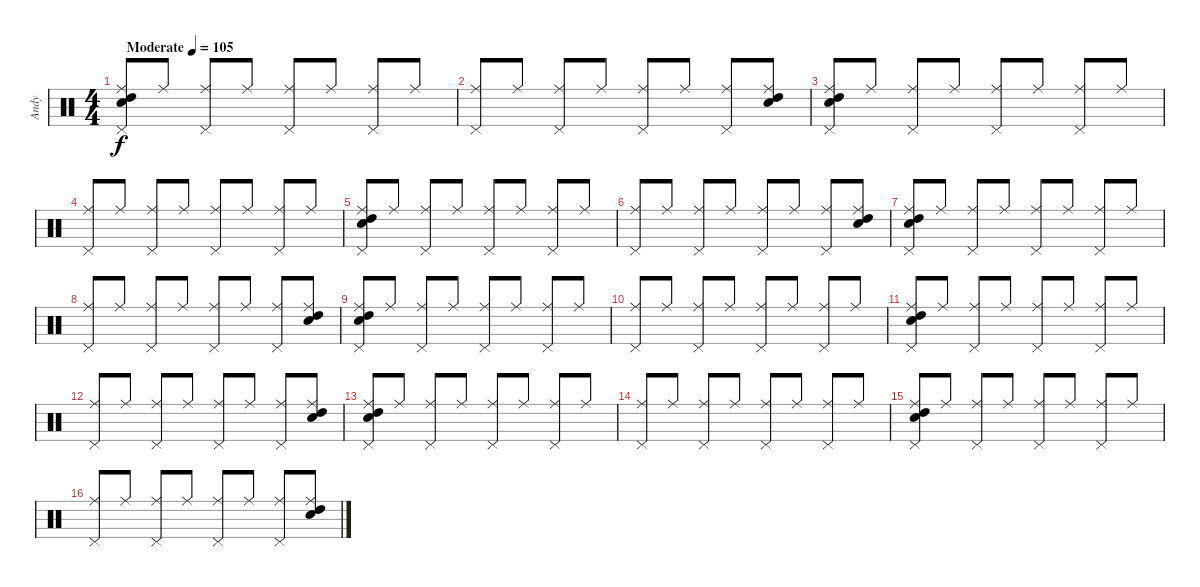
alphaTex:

\track ("Andy" "Andy") {instrument percussion}
\staff {score}
\articulation defaults
\ts (4 4)
\tempo (105 "Moderate")
\clef neutral
\ks c
("Snare (hit) 2" "High Tom (hit)" "Ride (middle)" "Pedal Hi-Hat (hit)").8{dy f} "Ride (middle)".8 ("Ride (middle)" "Pedal Hi-Hat (hit)").8 "Ride (middle)".8 ("Ride (middle)" "Pedal Hi-Hat (hit)").8 "Ride (middle)".8 ("Ride (middle)" "Pedal Hi-Hat (hit)").8 "Ride (middle)".8 |
("Ride (middle)" "Pedal Hi-Hat (hit)").8 "Ride (middle)".8 ("Ride (middle)" "Pedal Hi-Hat (hit)").8 "Ride (middle)".8 ("Ride (middle)" "Pedal Hi-Hat (hit)").8 "Ride (middle)".8 ("Ride (middle)" "Pedal Hi-Hat (hit)").8 ("Ride (middle)" "Snare (hit) 2" "High Tom (hit)").8 |
("Snare (hit) 2" "High Tom (hit)" "Ride (middle)" "Pedal Hi-Hat (hit)").8 "Ride (middle)".8 ("Ride (middle)" "Pedal Hi-Hat (hit)").8 "Ride (middle)".8 ("Ride (middle)" "Pedal Hi-Hat (hit)").8 "Ride (middle)".8 ("Ride (middle)" "Pedal Hi-Hat (hit)").8 "Ride (middle)".8 |
("Ride (middle)" "Pedal Hi-Hat (hit)").8 "Ride (middle)".8 ("Ride (middle)" "Pedal Hi-Hat (hit)").8 "Ride (middle)".8 ("Ride (middle)" "Pedal Hi-Hat (hit)").8 "Ride (middle)".8 ("Ride (middle)" "Pedal Hi-Hat (hit)").8 "Ride (middle)".8 |
("Snare (hit) 2" "High Tom (hit)" "Ride (middle)" "Pedal Hi-Hat (hit)").8 "Ride (middle)".8 ("Ride (middle)" "Pedal Hi-Hat (hit)").8 "Ride (middle)".8 ("Ride (middle)" "Pedal Hi-Hat (hit)").8 "Ride (middle)".8 ("Ride (middle)" "Pedal Hi-Hat (hit)").8 "Ride (middle)".8 |
("Ride (middle)" "Pedal Hi-Hat (hit)").8 "Ride (middle)".8 ("Ride (middle)" "Pedal Hi-Hat (hit)").8 "Ride (middle)".8 ("Ride (middle)" "Pedal Hi-Hat (hit)").8 "Ride (middle)".8 ("Ride (middle)" "Pedal Hi-Hat (hit)").8 ("Ride (middle)" "Snare (hit) 2" "High Tom (hit)").8 |
("Snare (hit) 2" "High Tom (hit)" "Ride (middle)" "Pedal Hi-Hat (hit)").8 "Ride (middle)".8 ("Ride (middle)" "Pedal Hi-Hat (hit)").8 "Ride (middle)".8 ("Ride (middle)" "Pedal Hi-Hat (hit)").8 "Ride (middle)".8 ("Ride (middle)" "Pedal Hi-Hat (hit)").8 "Ride (middle)".8 |
("Ride (middle)" "Pedal Hi-Hat (hit)").8 "Ride (middle)".8 ("Ride (middle)" "Pedal Hi-Hat (hit)").8 "Ride (middle)".8 ("Ride (middle)" "Pedal Hi-Hat (hit)").8 "Ride (middle)".8 ("Ride (middle)" "Pedal Hi-Hat (hit)").8 ("Ride (middle)" "Snare (hit) 2" "High Tom (hit)").8 |
("Snare (hit) 2" "High Tom (hit)" "Ride (middle)" "Pedal Hi-Hat (hit)").8 "Ride (middle)".8 ("Ride (middle)" "Pedal Hi-Hat (hit)").8 "Ride (middle)".8 ("Ride (middle)" "Pedal Hi-Hat (hit)").8 "Ride (middle)".8 ("Ride (middle)" "Pedal Hi-Hat (hit)").8 "Ride (middle)".8 |
("Ride (middle)" "Pedal Hi-Hat (hit)").8 "Ride (middle)".8 ("Ride (middle)" "Pedal Hi-Hat (hit)").8 "Ride (middle)".8 ("Ride (middle)" "Pedal Hi-Hat (hit)").8 "Ride (middle)".8 ("Ride (middle)" "Pedal Hi-Hat (hit)").8 "Ride (middle)".8 |
("Snare (hit) 2" "High Tom (hit)" "Ride (middle)" "Pedal Hi-Hat (hit)").8 "Ride (middle)".8 ("Ride (middle)" "Pedal Hi-Hat (hit)").8 "Ride (middle)".8 ("Ride (middle)" "Pedal Hi-Hat (hit)").8 "Ride (middle)".8 ("Ride (middle)" "Pedal Hi-Hat (hit)").8 "Ride (middle)".8 |
("Ride (middle)" "Pedal Hi-Hat (hit)").8 "Ride (middle)".8 ("Ride (middle)" "Pedal Hi-Hat (hit)").8 "Ride (middle)".8 ("Ride (middle)" "Pedal Hi-Hat (hit)").8 "Ride (middle)".8 ("Ride (middle)" "Pedal Hi-Hat (hit)").8 ("Ride (middle)" "Snare (hit) 2" "High Tom (hit)").8 |
("Snare (hit) 2" "High Tom (hit)" "Ride (middle)" "Pedal Hi-Hat (hit)").8 "Ride (middle)".8 ("Ride (middle)" "Pedal Hi-Hat (hit)").8 "Ride (middle)".8 ("Ride (middle)" "Pedal Hi-Hat (hit)").8 "Ride (middle)".8 ("Ride (middle)" "Pedal Hi-Hat (hit)").8 "Ride (middle)".8 |
("Ride (middle)" "Pedal Hi-Hat (hit)").8 "Ride (middle)".8 ("Ride (middle)" "Pedal Hi-Hat (hit)").8 "Ride (middle)".8 ("Ride (middle)" "Pedal Hi-Hat (hit)").8 "Ride (middle)".8 ("Ride (middle)" "Pedal Hi-Hat (hit)").8 "Ride (middle)".8 |
("Snare (hit) 2" "High Tom (hit)" "Ride (middle)" "Pedal Hi-Hat (hit)").8 "Ride (middle)".8 ("Ride (middle)" "Pedal Hi-Hat (hit)").8 "Ride (middle)".8 ("Ride (middle)" "Pedal Hi-Hat (hit)").8 "Ride (middle)".8 ("Ride (middle)" "Pedal Hi-Hat (hit)").8 "Ride (middle)".8 |
("Ride (middle)" "Pedal Hi-Hat (hit)").8 "Ride (middle)".8 ("Ride (middle)" "Pedal Hi-Hat (hit)").8 "Ride (middle)".8 ("Ride (middle)" "Pedal Hi-Hat (hit)").8 "Ride (middle)".8 ("Ride (middle)" "Pedal Hi-Hat (hit)").8 ("Ride (middle)" "Snare (hit) 2" "High Tom (hit)").8
